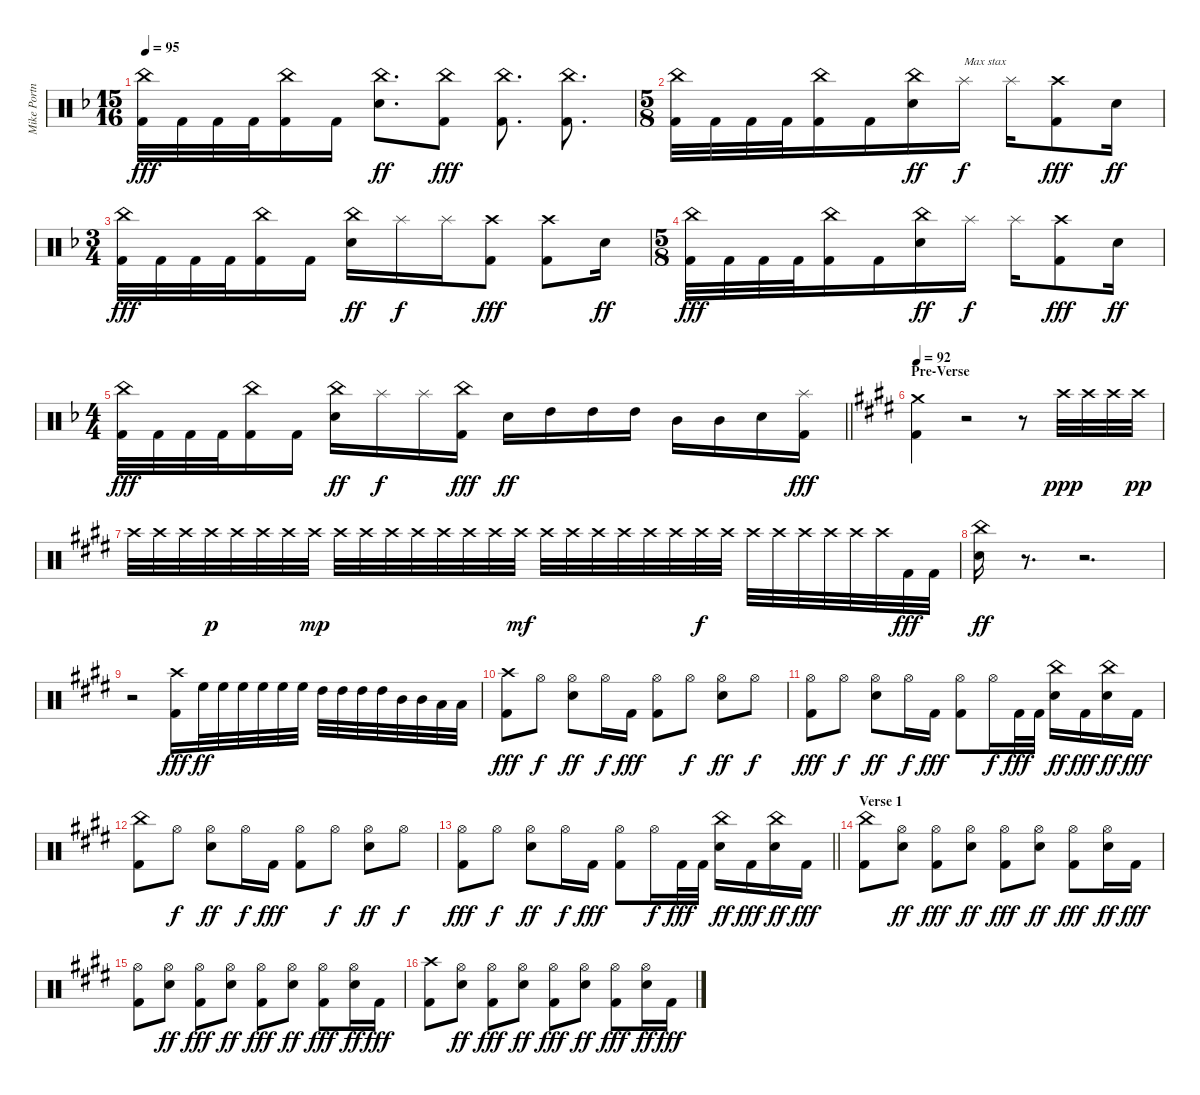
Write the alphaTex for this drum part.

\track ("Mike Portnoy" "Mike Portn") {instrument percussion}
\staff {score}
\articulation defaults
\ts (15 16)
\tempo 95
\clef neutral
\ks f
("China (hit)" "Kick (hit) 2").32{dy fff} "Kick (hit) 2".32 "Kick (hit) 2".32 "Kick (hit) 2".32 ("China (hit)" "Kick (hit) 2").16 "Kick (hit) 2".16 ("China (hit)" "Electric Snare (hit)").8{d dy ff} ("China (hit)" "Kick (hit) 2").8{dy fff} ("China (hit)" "Kick (hit) 2").8{d} ("China (hit)" "Kick (hit) 2").8{d} |
\ts (5 8)
("China (hit)" "Kick (hit) 2").32 "Kick (hit) 2".32 "Kick (hit) 2".32 "Kick (hit) 2".32 ("China (hit)" "Kick (hit) 2").16 "Kick (hit) 2".16 ("China (hit)" "Electric Snare (hit)").16{dy ff} "Splash (hit)".16{txt "Max stax" dy f} "Splash (hit)".16 ("Crash high (hit)" "Kick (hit) 2").8{dy fff} "Electric Snare (hit)".16{dy ff} |
\ts (3 4)
("China (hit)" "Kick (hit) 2").32{dy fff} "Kick (hit) 2".32 "Kick (hit) 2".32 "Kick (hit) 2".32 ("China (hit)" "Kick (hit) 2").16 "Kick (hit) 2".16 ("China (hit)" "Electric Snare (hit)").16{dy ff} "Splash (hit)".16{dy f} "Splash (hit)".16 ("Crash high (hit)" "Kick (hit) 2").8{dy fff} ("Crash high (hit)" "Kick (hit) 2").8 "Electric Snare (hit)".16{dy ff} |
\ts (5 8)
("China (hit)" "Kick (hit) 2").32{dy fff} "Kick (hit) 2".32 "Kick (hit) 2".32 "Kick (hit) 2".32 ("China (hit)" "Kick (hit) 2").16 "Kick (hit) 2".16 ("China (hit)" "Electric Snare (hit)").16{dy ff} "Splash (hit)".16{dy f} "Splash (hit)".16 ("Crash high (hit)" "Kick (hit) 2").8{dy fff} "Electric Snare (hit)".16{dy ff} |
\ts (4 4)
\barLineRight lightlight
("China (hit)" "Kick (hit) 2").32{dy fff} "Kick (hit) 2".32 "Kick (hit) 2".32 "Kick (hit) 2".32 ("China (hit)" "Kick (hit) 2").16 "Kick (hit) 2".16 ("China (hit)" "Electric Snare (hit)").16{dy ff} "Splash (hit)".16{dy f} "Splash (hit)".16 ("China (hit)" "Kick (hit) 2").16{dy fff} "Electric Snare (hit)".16{dy ff} "High Tom (hit)".16 "High Tom (hit)".16 "High Tom (hit)".16 "Mid Tom (hit)".16 "Mid Tom (hit)".16 "Electric Snare (hit)".16 ("Splash (hit)" "Kick (hit) 2").16{dy fff} |
\section ("" "Pre-Verse")
\tempo 92
\ks e
("Crash medium (hit)" "Kick (hit) 2").4 r.2 r.8 "Crash high (hit)".32{dy ppp} "Crash high (hit)".32 "Crash high (hit)".32 "Crash high (hit)".32{dy pp} |
"Crash high (hit)".32 "Crash high (hit)".32 "Crash high (hit)".32 "Crash high (hit)".32{dy p} "Crash high (hit)".32 "Crash high (hit)".32 "Crash high (hit)".32 "Crash high (hit)".32{dy mp} "Crash high (hit)".32 "Crash high (hit)".32 "Crash high (hit)".32 "Crash high (hit)".32 "Crash high (hit)".32 "Crash high (hit)".32 "Crash high (hit)".32 "Crash high (hit)".32{dy mf} "Crash high (hit)".32 "Crash high (hit)".32 "Crash high (hit)".32 "Crash high (hit)".32 "Crash high (hit)".32 "Crash high (hit)".32 "Crash high (hit)".32{dy f} "Crash high (hit)".32 "Crash high (hit)".32 "Crash high (hit)".32 "Crash high (hit)".32 "Crash high (hit)".32 "Crash high (hit)".32 "Crash high (hit)".32 "Kick (hit) 2".32{dy fff} "Kick (hit) 2".32 |
("China (hit)" "Electric Snare (hit)").16{dy ff} r.8{d} r.2{d} |
r.2 ("Crash high (hit)" "Kick (hit) 2").16{dy fff} "High Floor Tom (hit)".32{dy ff} "High Floor Tom (hit)".32 "High Floor Tom (hit)".32 "High Floor Tom (hit)".32 "High Floor Tom (hit)".32 "High Floor Tom (hit)".32 "High Tom (hit)".32 "High Tom (hit)".32 "High Tom (hit)".32 "High Tom (hit)".32 "Mid Tom (hit)".32 "Mid Tom (hit)".32 "Low Tom (hit)".32 "Low Tom (hit)".32 |
("Crash high (hit)" "Kick (hit) 2").8{dy fff} "Hi-Hat (open)".8{dy f} ("Hi-Hat (open)" "Electric Snare (hit)").8{dy ff} "Hi-Hat (open)".16{dy f} "Kick (hit) 2".16{dy fff} ("Hi-Hat (open)" "Kick (hit) 2").8 "Hi-Hat (open)".8{dy f} ("Hi-Hat (open)" "Electric Snare (hit)").8{dy ff} "Hi-Hat (open)".8{dy f} |
("Hi-Hat (open)" "Kick (hit) 2").8{dy fff} "Hi-Hat (open)".8{dy f} ("Hi-Hat (open)" "Electric Snare (hit)").8{dy ff} "Hi-Hat (open)".16{dy f} "Kick (hit) 2".16{dy fff} ("Hi-Hat (open)" "Kick (hit) 2").8 "Hi-Hat (open)".16{dy f} "Kick (hit) 2".32{dy fff} "Kick (hit) 2".32 ("China (hit)" "Electric Snare (hit)").16{dy ff} "Kick (hit) 2".16{dy fff} ("China (hit)" "Electric Snare (hit)").16{dy ff} "Kick (hit) 2".16{dy fff} |
("China (hit)" "Kick (hit) 2").8 "Hi-Hat (open)".8{dy f} ("Hi-Hat (open)" "Electric Snare (hit)").8{dy ff} "Hi-Hat (open)".16{dy f} "Kick (hit) 2".16{dy fff} ("Hi-Hat (open)" "Kick (hit) 2").8 "Hi-Hat (open)".8{dy f} ("Hi-Hat (open)" "Electric Snare (hit)").8{dy ff} "Hi-Hat (open)".8{dy f} |
\barLineRight lightlight
("Hi-Hat (open)" "Kick (hit) 2").8{dy fff} "Hi-Hat (open)".8{dy f} ("Hi-Hat (open)" "Electric Snare (hit)").8{dy ff} "Hi-Hat (open)".16{dy f} "Kick (hit) 2".16{dy fff} ("Hi-Hat (open)" "Kick (hit) 2").8 "Hi-Hat (open)".16{dy f} "Kick (hit) 2".32{dy fff} "Kick (hit) 2".32 ("China (hit)" "Electric Snare (hit)").16{dy ff} "Kick (hit) 2".16{dy fff} ("China (hit)" "Electric Snare (hit)").16{dy ff} "Kick (hit) 2".16{dy fff} |
\section ("" "Verse 1")
("China (hit)" "Kick (hit) 2").8 ("Hi-Hat (open)" "Electric Snare (hit)").8{dy ff} ("Hi-Hat (open)" "Kick (hit) 2").8{dy fff} ("Hi-Hat (open)" "Electric Snare (hit)").8{dy ff} ("Hi-Hat (open)" "Kick (hit) 2").8{dy fff} ("Hi-Hat (open)" "Electric Snare (hit)").8{dy ff} ("Hi-Hat (open)" "Kick (hit) 2").8{dy fff} ("Hi-Hat (open)" "Electric Snare (hit)").16{dy ff} "Kick (hit) 2".16{dy fff} |
("Hi-Hat (open)" "Kick (hit) 2").8 ("Hi-Hat (open)" "Electric Snare (hit)").8{dy ff} ("Hi-Hat (open)" "Kick (hit) 2").8{dy fff} ("Hi-Hat (open)" "Electric Snare (hit)").8{dy ff} ("Hi-Hat (open)" "Kick (hit) 2").8{dy fff} ("Hi-Hat (open)" "Electric Snare (hit)").8{dy ff} ("Hi-Hat (open)" "Kick (hit) 2").8{dy fff} ("Hi-Hat (open)" "Electric Snare (hit)").16{dy ff} "Kick (hit) 2".16{dy fff} |
("Crash high (hit)" "Kick (hit) 2").8 ("Hi-Hat (open)" "Electric Snare (hit)").8{dy ff} ("Hi-Hat (open)" "Kick (hit) 2").8{dy fff} ("Hi-Hat (open)" "Electric Snare (hit)").8{dy ff} ("Hi-Hat (open)" "Kick (hit) 2").8{dy fff} ("Hi-Hat (open)" "Electric Snare (hit)").8{dy ff} ("Hi-Hat (open)" "Kick (hit) 2").8{dy fff} ("Hi-Hat (open)" "Electric Snare (hit)").16{dy ff} "Kick (hit) 2".16{dy fff}
